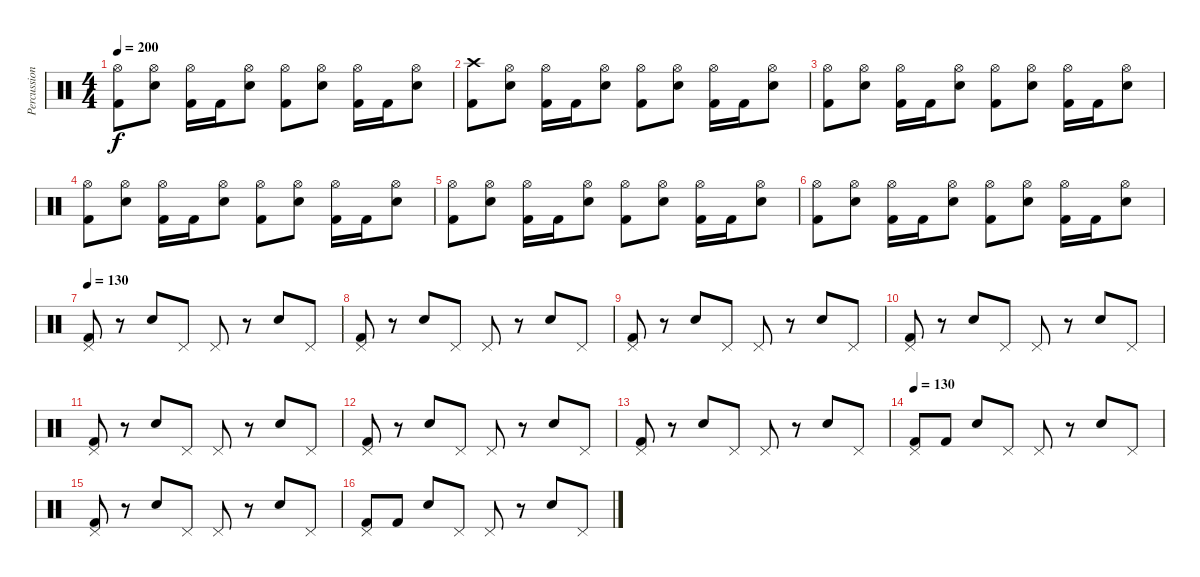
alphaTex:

\track ("Percussions" "Percussion") {instrument percussion}
\staff {score}
\articulation defaults
\ts (4 4)
\tempo 200
\clef neutral
\ks c
("Hi-Hat (open)" "Kick (hit) 2").8{dy f} ("Hi-Hat (open)" "Electric Snare (hit)").8 ("Hi-Hat (open)" "Kick (hit) 2").16 "Kick (hit) 2".16 ("Hi-Hat (open)" "Electric Snare (hit)").8 ("Hi-Hat (open)" "Kick (hit) 2").8 ("Hi-Hat (open)" "Electric Snare (hit)").8 ("Hi-Hat (open)" "Kick (hit) 2").16 "Kick (hit) 2".16 ("Hi-Hat (open)" "Electric Snare (hit)").8 |
("Crash high (hit)" "Kick (hit) 2").8 ("Hi-Hat (open)" "Electric Snare (hit)").8 ("Hi-Hat (open)" "Kick (hit) 2").16 "Kick (hit) 2".16 ("Hi-Hat (open)" "Electric Snare (hit)").8 ("Hi-Hat (open)" "Kick (hit) 2").8 ("Hi-Hat (open)" "Electric Snare (hit)").8 ("Hi-Hat (open)" "Kick (hit) 2").16 "Kick (hit) 2".16 ("Hi-Hat (open)" "Electric Snare (hit)").8 |
("Hi-Hat (open)" "Kick (hit) 2").8 ("Hi-Hat (open)" "Electric Snare (hit)").8 ("Hi-Hat (open)" "Kick (hit) 2").16 "Kick (hit) 2".16 ("Hi-Hat (open)" "Electric Snare (hit)").8 ("Hi-Hat (open)" "Kick (hit) 2").8 ("Hi-Hat (open)" "Electric Snare (hit)").8 ("Hi-Hat (open)" "Kick (hit) 2").16 "Kick (hit) 2".16 ("Hi-Hat (open)" "Electric Snare (hit)").8 |
("Hi-Hat (open)" "Kick (hit) 2").8 ("Hi-Hat (open)" "Electric Snare (hit)").8 ("Hi-Hat (open)" "Kick (hit) 2").16 "Kick (hit) 2".16 ("Hi-Hat (open)" "Electric Snare (hit)").8 ("Hi-Hat (open)" "Kick (hit) 2").8 ("Hi-Hat (open)" "Electric Snare (hit)").8 ("Hi-Hat (open)" "Kick (hit) 2").16 "Kick (hit) 2".16 ("Hi-Hat (open)" "Electric Snare (hit)").8 |
("Hi-Hat (open)" "Kick (hit) 2").8 ("Hi-Hat (open)" "Electric Snare (hit)").8 ("Hi-Hat (open)" "Kick (hit) 2").16 "Kick (hit) 2".16 ("Hi-Hat (open)" "Electric Snare (hit)").8 ("Hi-Hat (open)" "Kick (hit) 2").8 ("Hi-Hat (open)" "Electric Snare (hit)").8 ("Hi-Hat (open)" "Kick (hit) 2").16 "Kick (hit) 2".16 ("Hi-Hat (open)" "Electric Snare (hit)").8 |
("Hi-Hat (open)" "Kick (hit) 2").8 ("Hi-Hat (open)" "Electric Snare (hit)").8 ("Hi-Hat (open)" "Kick (hit) 2").16 "Kick (hit) 2".16 ("Hi-Hat (open)" "Electric Snare (hit)").8 ("Hi-Hat (open)" "Kick (hit) 2").8 ("Hi-Hat (open)" "Electric Snare (hit)").8 ("Hi-Hat (open)" "Kick (hit) 2").16 "Kick (hit) 2".16 ("Hi-Hat (open)" "Electric Snare (hit)").8 |
\tempo 130
("Pedal Hi-Hat (hit)" "Kick (hit) 2").8 r.8 "Electric Snare (hit)".8 "Pedal Hi-Hat (hit)".8 "Pedal Hi-Hat (hit)".8 r.8 "Electric Snare (hit)".8 "Pedal Hi-Hat (hit)".8 |
("Pedal Hi-Hat (hit)" "Kick (hit) 2").8 r.8 "Electric Snare (hit)".8 "Pedal Hi-Hat (hit)".8 "Pedal Hi-Hat (hit)".8 r.8 "Electric Snare (hit)".8 "Pedal Hi-Hat (hit)".8 |
("Pedal Hi-Hat (hit)" "Kick (hit) 2").8 r.8 "Electric Snare (hit)".8 "Pedal Hi-Hat (hit)".8 "Pedal Hi-Hat (hit)".8 r.8 "Electric Snare (hit)".8 "Pedal Hi-Hat (hit)".8 |
("Pedal Hi-Hat (hit)" "Kick (hit) 2").8 r.8 "Electric Snare (hit)".8 "Pedal Hi-Hat (hit)".8 "Pedal Hi-Hat (hit)".8 r.8 "Electric Snare (hit)".8 "Pedal Hi-Hat (hit)".8 |
("Pedal Hi-Hat (hit)" "Kick (hit) 2").8 r.8 "Electric Snare (hit)".8 "Pedal Hi-Hat (hit)".8 "Pedal Hi-Hat (hit)".8 r.8 "Electric Snare (hit)".8 "Pedal Hi-Hat (hit)".8 |
("Pedal Hi-Hat (hit)" "Kick (hit) 2").8 r.8 "Electric Snare (hit)".8 "Pedal Hi-Hat (hit)".8 "Pedal Hi-Hat (hit)".8 r.8 "Electric Snare (hit)".8 "Pedal Hi-Hat (hit)".8 |
("Pedal Hi-Hat (hit)" "Kick (hit) 2").8 r.8 "Electric Snare (hit)".8 "Pedal Hi-Hat (hit)".8 "Pedal Hi-Hat (hit)".8 r.8 "Electric Snare (hit)".8 "Pedal Hi-Hat (hit)".8 |
\tempo 130
("Pedal Hi-Hat (hit)" "Kick (hit) 2").8 "Kick (hit) 2".8 "Electric Snare (hit)".8 "Pedal Hi-Hat (hit)".8 "Pedal Hi-Hat (hit)".8 r.8 "Electric Snare (hit)".8 "Pedal Hi-Hat (hit)".8 |
("Pedal Hi-Hat (hit)" "Kick (hit) 2").8 r.8 "Electric Snare (hit)".8 "Pedal Hi-Hat (hit)".8 "Pedal Hi-Hat (hit)".8 r.8 "Electric Snare (hit)".8 "Pedal Hi-Hat (hit)".8 |
("Pedal Hi-Hat (hit)" "Kick (hit) 2").8 "Kick (hit) 2".8 "Electric Snare (hit)".8 "Pedal Hi-Hat (hit)".8 "Pedal Hi-Hat (hit)".8 r.8 "Electric Snare (hit)".8 "Pedal Hi-Hat (hit)".8
